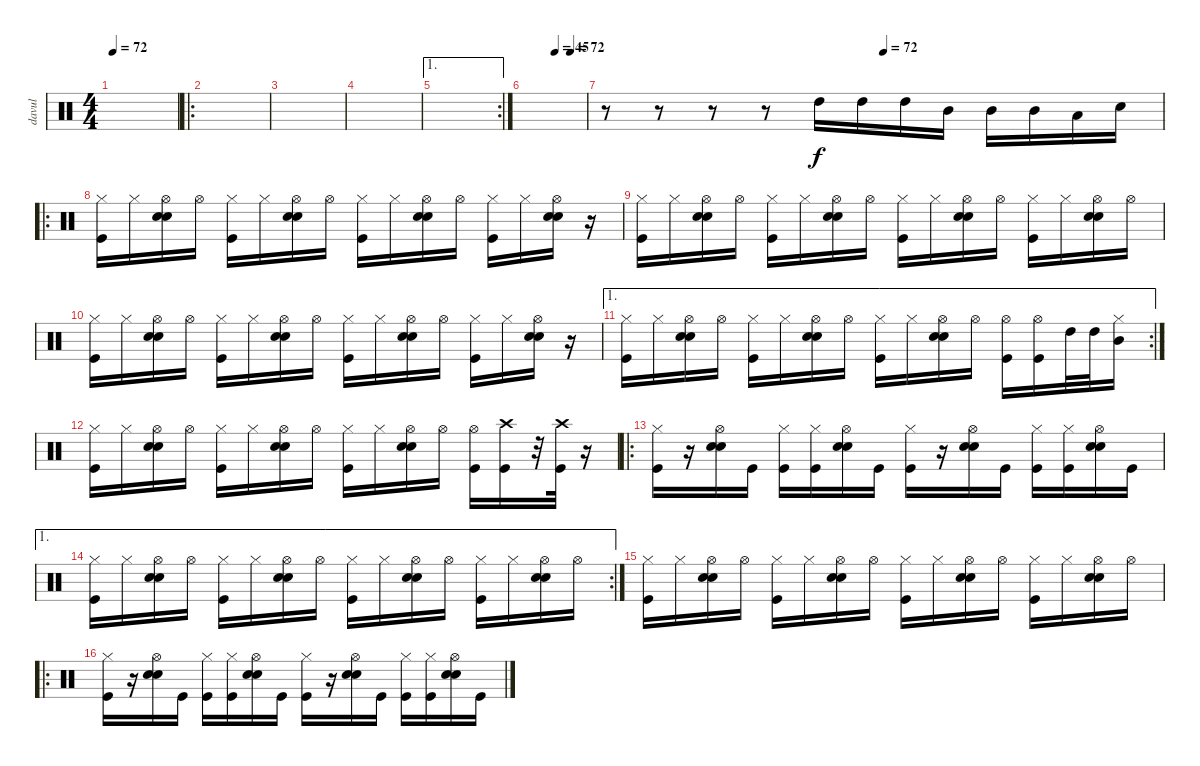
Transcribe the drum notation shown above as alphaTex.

\track ("davul" "davul") {instrument percussion}
\staff {score}
\articulation defaults
\ts (4 4)
\tempo 72
\clef neutral
\ks c
|
\ro
|
|
|
\ae 1
\rc 2
|
\tempo (45 0.5)
\tempo (72 0.75)
|
\tempo (72 0.5)
r.8 r.8 r.8 r.8 "High Tom (hit)".16 "High Tom (hit)".16 "High Tom (hit)".16 "Mid Tom (hit)".16 "Mid Tom (hit)".16 "Mid Tom (hit)".16 "Low Floor Tom (hit)".16 "Snare (hit) 2".16 |
\ro
("Hi-Hat (closed)" "Kick (hit)").16 "Hi-Hat (closed)".16 ("Hi-Hat (open)" "Snare (hit) 2" "Electric Snare (hit)").16 "Hi-Hat (open)".16 ("Hi-Hat (closed)" "Kick (hit)").16 "Hi-Hat (closed)".16 ("Hi-Hat (open)" "Snare (hit) 2" "Electric Snare (hit)").16 "Hi-Hat (open)".16 ("Hi-Hat (closed)" "Kick (hit)").16 "Hi-Hat (closed)".16 ("Hi-Hat (open)" "Snare (hit) 2" "Electric Snare (hit)").16 "Hi-Hat (open)".16 ("Hi-Hat (closed)" "Kick (hit)").16 "Hi-Hat (closed)".16 ("Hi-Hat (open)" "Snare (hit) 2" "Electric Snare (hit)").16 r.16 |
("Hi-Hat (closed)" "Kick (hit)").16 "Hi-Hat (closed)".16 ("Hi-Hat (open)" "Snare (hit) 2" "Electric Snare (hit)").16 "Hi-Hat (open)".16 ("Hi-Hat (closed)" "Kick (hit)").16 "Hi-Hat (closed)".16 ("Hi-Hat (open)" "Snare (hit) 2" "Electric Snare (hit)").16 "Hi-Hat (open)".16 ("Hi-Hat (closed)" "Kick (hit)").16 "Hi-Hat (closed)".16 ("Hi-Hat (open)" "Snare (hit) 2" "Electric Snare (hit)").16 "Hi-Hat (open)".16 ("Hi-Hat (closed)" "Kick (hit)").16 "Hi-Hat (closed)".16 ("Hi-Hat (open)" "Snare (hit) 2" "Electric Snare (hit)").16 "Hi-Hat (open)".16 |
("Hi-Hat (closed)" "Kick (hit)").16 "Hi-Hat (closed)".16 ("Hi-Hat (open)" "Snare (hit) 2" "Electric Snare (hit)").16 "Hi-Hat (open)".16 ("Hi-Hat (closed)" "Kick (hit)").16 "Hi-Hat (closed)".16 ("Hi-Hat (open)" "Snare (hit) 2" "Electric Snare (hit)").16 "Hi-Hat (open)".16 ("Hi-Hat (closed)" "Kick (hit)").16 "Hi-Hat (closed)".16 ("Hi-Hat (open)" "Snare (hit) 2" "Electric Snare (hit)").16 "Hi-Hat (open)".16 ("Hi-Hat (closed)" "Kick (hit)").16 "Hi-Hat (closed)".16 ("Hi-Hat (open)" "Snare (hit) 2" "Electric Snare (hit)").16 r.16 |
\ae 1
\rc 2
("Hi-Hat (closed)" "Kick (hit)").16 "Hi-Hat (closed)".16 ("Hi-Hat (open)" "Snare (hit) 2" "Electric Snare (hit)").16 "Hi-Hat (open)".16 ("Hi-Hat (closed)" "Kick (hit)").16 "Hi-Hat (closed)".16 ("Hi-Hat (open)" "Snare (hit) 2" "Electric Snare (hit)").16 "Hi-Hat (open)".16 ("Hi-Hat (closed)" "Kick (hit)").16 "Hi-Hat (closed)".16 ("Hi-Hat (open)" "Snare (hit) 2" "Electric Snare (hit)").16 "Hi-Hat (open)".16 ("Hi-Hat (open)" "Kick (hit)").16 ("Hi-Hat (open)" "Kick (hit)").16 "High Tom (hit)".32 "High Tom (hit)".32 ("Hi-Hat (closed)" "Mid Tom (hit)").16 |
("Hi-Hat (closed)" "Kick (hit)").16 "Hi-Hat (closed)".16 ("Hi-Hat (open)" "Snare (hit) 2" "Electric Snare (hit)").16 "Hi-Hat (open)".16 ("Hi-Hat (closed)" "Kick (hit)").16 "Hi-Hat (closed)".16 ("Hi-Hat (open)" "Snare (hit) 2" "Electric Snare (hit)").16 "Hi-Hat (open)".16 ("Hi-Hat (closed)" "Kick (hit)").16 "Hi-Hat (closed)".16 ("Hi-Hat (open)" "Snare (hit) 2" "Electric Snare (hit)").16 "Hi-Hat (open)".16 ("Hi-Hat (open)" "Kick (hit)").16 ("Crash high (hit)" "Kick (hit)").16 r.32 ("Crash high (hit)" "Kick (hit)").32 r.16 |
\ro
("Hi-Hat (closed)" "Kick (hit)").16 r.16 ("Hi-Hat (open)" "Snare (hit) 2" "Electric Snare (hit)").16 "Kick (hit)".16 ("Hi-Hat (closed)" "Kick (hit)").16 ("Hi-Hat (closed)" "Kick (hit)").16 ("Hi-Hat (open)" "Snare (hit) 2" "Electric Snare (hit)").16 "Kick (hit)".16 ("Hi-Hat (closed)" "Kick (hit)").16 r.16 ("Hi-Hat (open)" "Snare (hit) 2" "Electric Snare (hit)").16 "Kick (hit)".16 ("Hi-Hat (closed)" "Kick (hit)").16 ("Hi-Hat (closed)" "Kick (hit)").16 ("Hi-Hat (open)" "Snare (hit) 2" "Electric Snare (hit)").16 "Kick (hit)".16 |
\ae 1
\rc 2
("Hi-Hat (closed)" "Kick (hit)").16 "Hi-Hat (closed)".16 ("Hi-Hat (open)" "Snare (hit) 2" "Electric Snare (hit)").16 "Hi-Hat (open)".16 ("Hi-Hat (closed)" "Kick (hit)").16 "Hi-Hat (closed)".16 ("Hi-Hat (open)" "Snare (hit) 2" "Electric Snare (hit)").16 "Hi-Hat (open)".16 ("Hi-Hat (closed)" "Kick (hit)").16 "Hi-Hat (closed)".16 ("Hi-Hat (open)" "Snare (hit) 2" "Electric Snare (hit)").16 "Hi-Hat (open)".16 ("Hi-Hat (closed)" "Kick (hit)").16 "Hi-Hat (closed)".16 ("Hi-Hat (open)" "Snare (hit) 2" "Electric Snare (hit)").16 "Hi-Hat (open)".16 |
("Hi-Hat (closed)" "Kick (hit)").16 "Hi-Hat (closed)".16 ("Hi-Hat (open)" "Snare (hit) 2" "Electric Snare (hit)").16 "Hi-Hat (open)".16 ("Hi-Hat (closed)" "Kick (hit)").16 "Hi-Hat (closed)".16 ("Hi-Hat (open)" "Snare (hit) 2" "Electric Snare (hit)").16 "Hi-Hat (open)".16 ("Hi-Hat (closed)" "Kick (hit)").16 "Hi-Hat (closed)".16 ("Hi-Hat (open)" "Snare (hit) 2" "Electric Snare (hit)").16 "Hi-Hat (open)".16 ("Hi-Hat (closed)" "Kick (hit)").16 "Hi-Hat (closed)".16 ("Hi-Hat (open)" "Snare (hit) 2" "Electric Snare (hit)").16 "Hi-Hat (open)".16 |
\ro
("Hi-Hat (closed)" "Kick (hit)").16 r.16 ("Hi-Hat (open)" "Snare (hit) 2" "Electric Snare (hit)").16 "Kick (hit)".16 ("Hi-Hat (closed)" "Kick (hit)").16 ("Hi-Hat (closed)" "Kick (hit)").16 ("Hi-Hat (open)" "Snare (hit) 2" "Electric Snare (hit)").16 "Kick (hit)".16 ("Hi-Hat (closed)" "Kick (hit)").16 r.16 ("Hi-Hat (open)" "Snare (hit) 2" "Electric Snare (hit)").16 "Kick (hit)".16 ("Hi-Hat (closed)" "Kick (hit)").16 ("Hi-Hat (closed)" "Kick (hit)").16 ("Hi-Hat (open)" "Snare (hit) 2" "Electric Snare (hit)").16 "Kick (hit)".16
